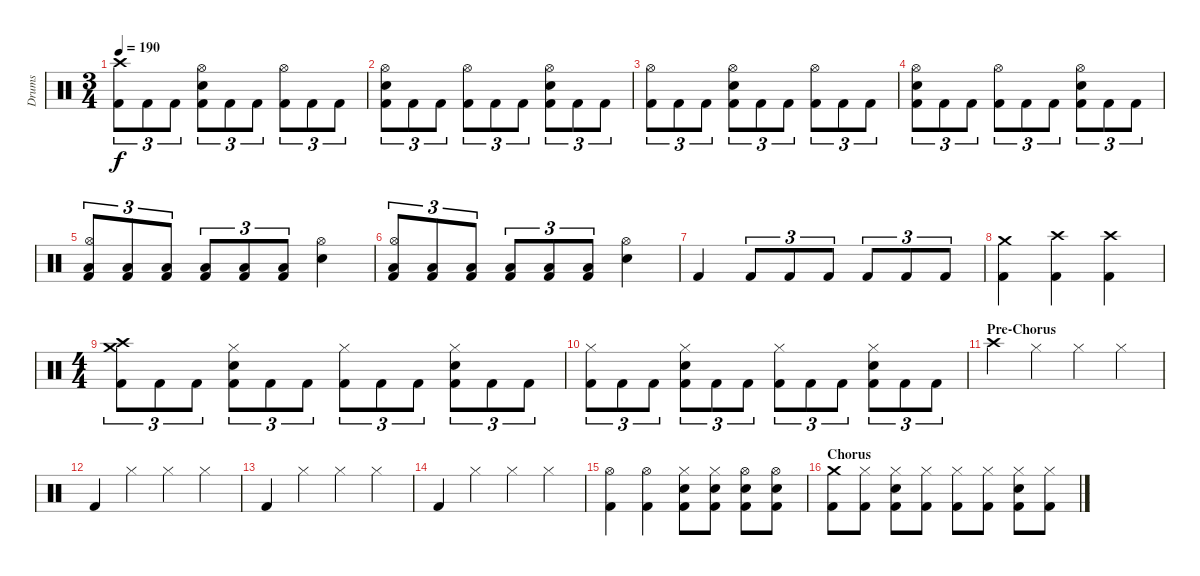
\track ("Drums" "Drums") {instrument percussion}
\staff {score}
\articulation defaults
\ts (3 4)
\tempo 190
\clef neutral
\ks c
("Kick (hit) 2" "Crash high (hit)").8{tu (3 2) dy f} "Kick (hit) 2".8{tu (3 2)} "Kick (hit) 2".8{tu (3 2)} ("Kick (hit) 2" "Electric Snare (hit)" "Hi-Hat (open)").8{tu (3 2)} "Kick (hit) 2".8{tu (3 2)} "Kick (hit) 2".8{tu (3 2)} ("Kick (hit) 2" "Hi-Hat (open)").8{tu (3 2)} "Kick (hit) 2".8{tu (3 2)} "Kick (hit) 2".8{tu (3 2)} |
("Kick (hit) 2" "Electric Snare (hit)" "Hi-Hat (open)").8{tu (3 2)} "Kick (hit) 2".8{tu (3 2)} "Kick (hit) 2".8{tu (3 2)} ("Kick (hit) 2" "Hi-Hat (open)").8{tu (3 2)} "Kick (hit) 2".8{tu (3 2)} "Kick (hit) 2".8{tu (3 2)} ("Kick (hit) 2" "Electric Snare (hit)" "Hi-Hat (open)").8{tu (3 2)} "Kick (hit) 2".8{tu (3 2)} "Kick (hit) 2".8{tu (3 2)} |
("Kick (hit) 2" "Hi-Hat (open)").8{tu (3 2)} "Kick (hit) 2".8{tu (3 2)} "Kick (hit) 2".8{tu (3 2)} ("Kick (hit) 2" "Electric Snare (hit)" "Hi-Hat (open)").8{tu (3 2)} "Kick (hit) 2".8{tu (3 2)} "Kick (hit) 2".8{tu (3 2)} ("Kick (hit) 2" "Hi-Hat (open)").8{tu (3 2)} "Kick (hit) 2".8{tu (3 2)} "Kick (hit) 2".8{tu (3 2)} |
("Kick (hit) 2" "Electric Snare (hit)" "Hi-Hat (open)").8{tu (3 2)} "Kick (hit) 2".8{tu (3 2)} "Kick (hit) 2".8{tu (3 2)} ("Kick (hit) 2" "Hi-Hat (open)").8{tu (3 2)} "Kick (hit) 2".8{tu (3 2)} "Kick (hit) 2".8{tu (3 2)} ("Kick (hit) 2" "Electric Snare (hit)" "Hi-Hat (open)").8{tu (3 2)} "Kick (hit) 2".8{tu (3 2)} "Kick (hit) 2".8{tu (3 2)} |
("Kick (hit) 2" "Low Tom (hit)" "Hi-Hat (open)").8{tu (3 2)} ("Kick (hit) 2" "Low Tom (hit)").8{tu (3 2)} ("Kick (hit) 2" "Low Tom (hit)").8{tu (3 2)} ("Kick (hit) 2" "Low Tom (hit)").8{tu (3 2)} ("Kick (hit) 2" "Low Tom (hit)").8{tu (3 2)} ("Kick (hit) 2" "Low Tom (hit)").8{tu (3 2)} ("Electric Snare (hit)" "Hi-Hat (open)").4 |
("Kick (hit) 2" "Low Tom (hit)" "Hi-Hat (open)").8{tu (3 2)} ("Kick (hit) 2" "Low Tom (hit)").8{tu (3 2)} ("Kick (hit) 2" "Low Tom (hit)").8{tu (3 2)} ("Kick (hit) 2" "Low Tom (hit)").8{tu (3 2)} ("Kick (hit) 2" "Low Tom (hit)").8{tu (3 2)} ("Kick (hit) 2" "Low Tom (hit)").8{tu (3 2)} ("Electric Snare (hit)" "Hi-Hat (open)").4 |
"Kick (hit) 2".4 "Kick (hit) 2".8{tu (3 2)} "Kick (hit) 2".8{tu (3 2)} "Kick (hit) 2".8{tu (3 2)} "Kick (hit) 2".8{tu (3 2)} "Kick (hit) 2".8{tu (3 2)} "Kick (hit) 2".8{tu (3 2)} |
("Kick (hit) 2" "Crash medium (hit)").4 ("Kick (hit) 2" "Crash high (hit)").4 ("Kick (hit) 2" "Crash high (hit)").4 |
\ts (4 4)
("Kick (hit) 2" "Crash high (hit)" "Crash medium (hit)").8{tu (3 2)} "Kick (hit) 2".8{tu (3 2)} "Kick (hit) 2".8{tu (3 2)} ("Kick (hit) 2" "Electric Snare (hit)" "Hi-Hat (closed)").8{tu (3 2)} "Kick (hit) 2".8{tu (3 2)} "Kick (hit) 2".8{tu (3 2)} ("Kick (hit) 2" "Hi-Hat (closed)").8{tu (3 2)} "Kick (hit) 2".8{tu (3 2)} "Kick (hit) 2".8{tu (3 2)} ("Kick (hit) 2" "Electric Snare (hit)" "Hi-Hat (closed)").8{tu (3 2)} "Kick (hit) 2".8{tu (3 2)} "Kick (hit) 2".8{tu (3 2)} |
("Kick (hit) 2" "Hi-Hat (closed)").8{tu (3 2)} "Kick (hit) 2".8{tu (3 2)} "Kick (hit) 2".8{tu (3 2)} ("Kick (hit) 2" "Electric Snare (hit)" "Hi-Hat (closed)").8{tu (3 2)} "Kick (hit) 2".8{tu (3 2)} "Kick (hit) 2".8{tu (3 2)} ("Kick (hit) 2" "Hi-Hat (closed)").8{tu (3 2)} "Kick (hit) 2".8{tu (3 2)} "Kick (hit) 2".8{tu (3 2)} ("Kick (hit) 2" "Electric Snare (hit)" "Hi-Hat (closed)").8{tu (3 2)} "Kick (hit) 2".8{tu (3 2)} "Kick (hit) 2".8{tu (3 2)} |
\section ("" "Pre-Chorus")
"Crash high (hit)".4 "Hi-Hat (closed)".4 "Hi-Hat (closed)".4 "Hi-Hat (closed)".4 |
"Kick (hit) 2".4 "Hi-Hat (closed)".4 "Hi-Hat (closed)".4 "Hi-Hat (closed)".4 |
"Kick (hit) 2".4 "Hi-Hat (closed)".4 "Hi-Hat (closed)".4 "Hi-Hat (closed)".4 |
"Kick (hit) 2".4 "Hi-Hat (closed)".4 "Hi-Hat (closed)".4 "Hi-Hat (closed)".4 |
("Kick (hit) 2" "Hi-Hat (open)").4 ("Kick (hit) 2" "Hi-Hat (open)").4 ("Kick (hit) 2" "Electric Snare (hit)" "Hi-Hat (closed)").8 ("Kick (hit) 2" "Electric Snare (hit)" "Hi-Hat (closed)").8 ("Kick (hit) 2" "Electric Snare (hit)" "Hi-Hat (open)").8 ("Kick (hit) 2" "Electric Snare (hit)" "Hi-Hat (open)").8 |
\section ("" "Chorus")
("Kick (hit) 2" "Crash medium (hit)").8 ("Kick (hit) 2" "Hi-Hat (closed)").8 ("Kick (hit) 2" "Electric Snare (hit)" "Hi-Hat (closed)").8 ("Kick (hit) 2" "Hi-Hat (closed)").8 ("Kick (hit) 2" "Hi-Hat (closed)").8 ("Kick (hit) 2" "Hi-Hat (closed)").8 ("Kick (hit) 2" "Electric Snare (hit)" "Hi-Hat (closed)").8 ("Kick (hit) 2" "Hi-Hat (closed)").8
